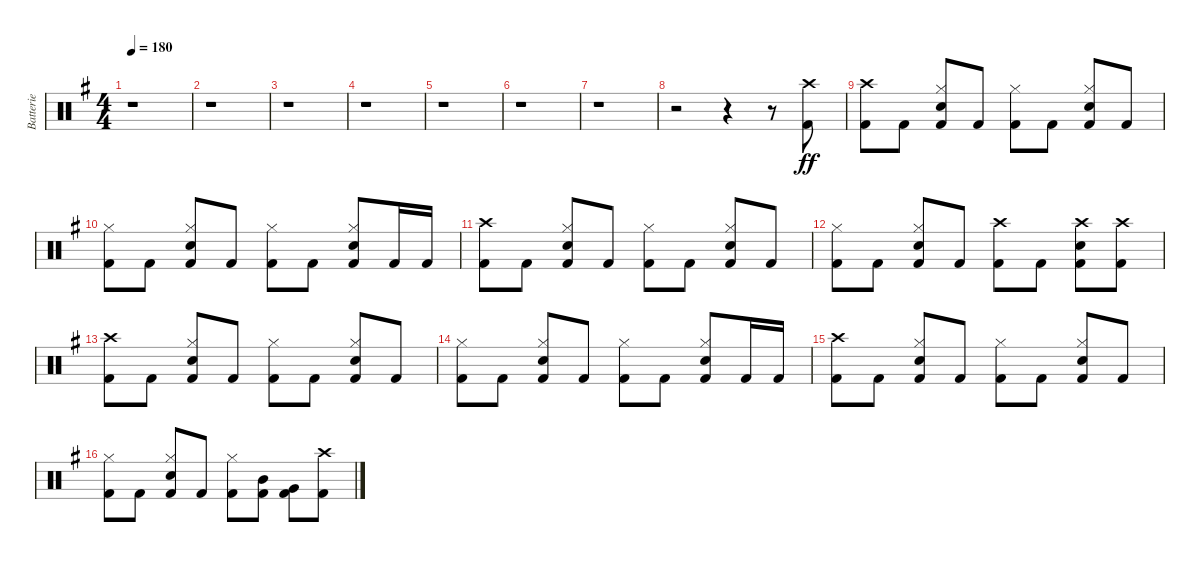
\track ("Batterie" "Batterie") {instrument percussion}
\staff {score}
\articulation defaults
\ts (4 4)
\tempo 180
\clef neutral
\ks g
r.1{dy ff} |
r.1 |
r.1 |
r.1 |
r.1 |
r.1 |
r.1 |
r.2 r.4 r.8 ("Crash high (hit)" "Kick (hit) 2").8 |
("Crash high (hit)" "Kick (hit) 2").8 "Kick (hit) 2".8 ("Hi-Hat (closed)" "Snare (hit) 2" "Kick (hit) 2").8 "Kick (hit) 2".8 ("Hi-Hat (closed)" "Kick (hit) 2").8 "Kick (hit) 2".8 ("Hi-Hat (closed)" "Snare (hit) 2" "Kick (hit) 2").8 "Kick (hit) 2".8 |
("Hi-Hat (closed)" "Kick (hit) 2").8 "Kick (hit) 2".8 ("Hi-Hat (closed)" "Snare (hit) 2" "Kick (hit) 2").8 "Kick (hit) 2".8 ("Hi-Hat (closed)" "Kick (hit) 2").8 "Kick (hit) 2".8 ("Hi-Hat (closed)" "Snare (hit) 2" "Kick (hit) 2").8 "Kick (hit) 2".16 "Kick (hit) 2".16 |
("Crash high (hit)" "Kick (hit) 2").8 "Kick (hit) 2".8 ("Hi-Hat (closed)" "Snare (hit) 2" "Kick (hit) 2").8 "Kick (hit) 2".8 ("Hi-Hat (closed)" "Kick (hit) 2").8 "Kick (hit) 2".8 ("Hi-Hat (closed)" "Snare (hit) 2" "Kick (hit) 2").8 "Kick (hit) 2".8 |
("Hi-Hat (closed)" "Kick (hit) 2").8 "Kick (hit) 2".8 ("Hi-Hat (closed)" "Snare (hit) 2" "Kick (hit) 2").8 "Kick (hit) 2".8 ("Crash high (hit)" "Kick (hit) 2").8 "Kick (hit) 2".8 ("Crash high (hit)" "Snare (hit) 2" "Kick (hit) 2").8 ("Crash high (hit)" "Kick (hit) 2").8 |
("Crash high (hit)" "Kick (hit) 2").8 "Kick (hit) 2".8 ("Hi-Hat (closed)" "Snare (hit) 2" "Kick (hit) 2").8 "Kick (hit) 2".8 ("Hi-Hat (closed)" "Kick (hit) 2").8 "Kick (hit) 2".8 ("Hi-Hat (closed)" "Snare (hit) 2" "Kick (hit) 2").8 "Kick (hit) 2".8 |
("Hi-Hat (closed)" "Kick (hit) 2").8 "Kick (hit) 2".8 ("Hi-Hat (closed)" "Snare (hit) 2" "Kick (hit) 2").8 "Kick (hit) 2".8 ("Hi-Hat (closed)" "Kick (hit) 2").8 "Kick (hit) 2".8 ("Hi-Hat (closed)" "Snare (hit) 2" "Kick (hit) 2").8 "Kick (hit) 2".16 "Kick (hit) 2".16 |
("Crash high (hit)" "Kick (hit) 2").8 "Kick (hit) 2".8 ("Hi-Hat (closed)" "Snare (hit) 2" "Kick (hit) 2").8 "Kick (hit) 2".8 ("Hi-Hat (closed)" "Kick (hit) 2").8 "Kick (hit) 2".8 ("Hi-Hat (closed)" "Snare (hit) 2" "Kick (hit) 2").8 "Kick (hit) 2".8 |
("Hi-Hat (closed)" "Kick (hit) 2").8 "Kick (hit) 2".8 ("Hi-Hat (closed)" "Snare (hit) 2" "Kick (hit) 2").8 "Kick (hit) 2".8 ("Hi-Hat (closed)" "Kick (hit) 2").8 ("Mid Tom (hit)" "Kick (hit) 2").8 ("Very Low Tom (hit)" "Kick (hit) 2").8 ("Crash high (hit)" "Kick (hit) 2").8
